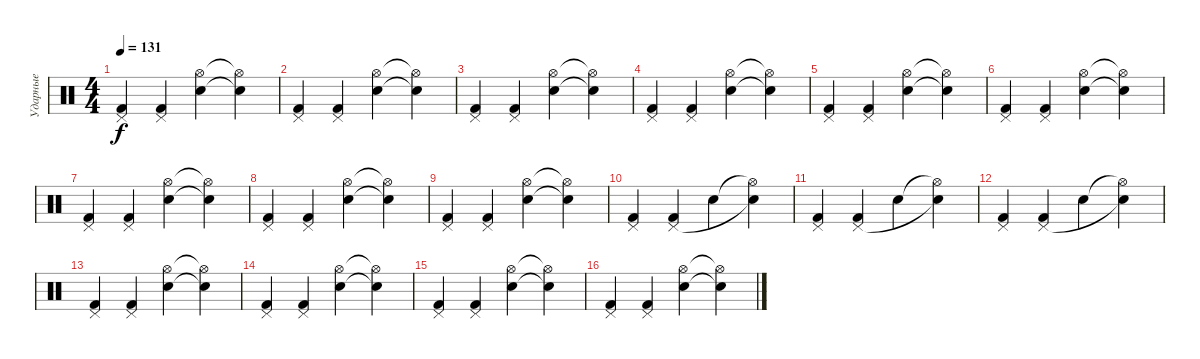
\track ("Ударные" "Ударные") {instrument percussion}
\staff {score}
\articulation defaults
\ts (4 4)
\tempo 131
\clef neutral
\ks c
("Kick (hit) 2" "Pedal Hi-Hat (hit)").4{dy f} ("Kick (hit) 2" "Pedal Hi-Hat (hit)").4 ("Hi-Hat (open)" "Snare (hit) 2").4 ("Hi-Hat (open)"{t} "Snare (hit) 2"{t}).4 |
("Kick (hit) 2" "Pedal Hi-Hat (hit)").4 ("Kick (hit) 2" "Pedal Hi-Hat (hit)").4 ("Hi-Hat (open)" "Snare (hit) 2").4 ("Hi-Hat (open)"{t} "Snare (hit) 2"{t}).4 |
("Kick (hit) 2" "Pedal Hi-Hat (hit)").4 ("Kick (hit) 2" "Pedal Hi-Hat (hit)").4 ("Hi-Hat (open)" "Snare (hit) 2").4 ("Hi-Hat (open)"{t} "Snare (hit) 2"{t}).4 |
("Kick (hit) 2" "Pedal Hi-Hat (hit)").4 ("Kick (hit) 2" "Pedal Hi-Hat (hit)").4 ("Hi-Hat (open)" "Snare (hit) 2").4 ("Hi-Hat (open)"{t} "Snare (hit) 2"{t}).4 |
("Kick (hit) 2" "Pedal Hi-Hat (hit)").4 ("Kick (hit) 2" "Pedal Hi-Hat (hit)").4 ("Hi-Hat (open)" "Snare (hit) 2").4 ("Hi-Hat (open)"{t} "Snare (hit) 2"{t}).4 |
("Kick (hit) 2" "Pedal Hi-Hat (hit)").4 ("Kick (hit) 2" "Pedal Hi-Hat (hit)").4 ("Hi-Hat (open)" "Snare (hit) 2").4 ("Hi-Hat (open)"{t} "Snare (hit) 2"{t}).4 |
("Kick (hit) 2" "Pedal Hi-Hat (hit)").4 ("Kick (hit) 2" "Pedal Hi-Hat (hit)").4 ("Hi-Hat (open)" "Snare (hit) 2").4 ("Hi-Hat (open)"{t} "Snare (hit) 2"{t}).4 |
("Kick (hit) 2" "Pedal Hi-Hat (hit)").4 ("Kick (hit) 2" "Pedal Hi-Hat (hit)").4 ("Hi-Hat (open)" "Snare (hit) 2").4 ("Hi-Hat (open)"{t} "Snare (hit) 2"{t}).4 |
("Kick (hit) 2" "Pedal Hi-Hat (hit)").4 ("Kick (hit) 2" "Pedal Hi-Hat (hit)").4 ("Hi-Hat (open)" "Snare (hit) 2").4 ("Hi-Hat (open)"{t} "Snare (hit) 2"{t}).4 |
("Kick (hit) 2" "Pedal Hi-Hat (hit)").4 ("Kick (hit) 2" "Pedal Hi-Hat (hit)").4 "Snare (hit) 2".4 ("Hi-Hat (open)"{t} "Snare (hit) 2"{t}).4 |
("Kick (hit) 2" "Pedal Hi-Hat (hit)").4 ("Kick (hit) 2" "Pedal Hi-Hat (hit)").4 "Snare (hit) 2".4 ("Hi-Hat (open)"{t} "Snare (hit) 2"{t}).4 |
("Kick (hit) 2" "Pedal Hi-Hat (hit)").4 ("Kick (hit) 2" "Pedal Hi-Hat (hit)").4 "Snare (hit) 2".4 ("Hi-Hat (open)"{t} "Snare (hit) 2"{t}).4 |
("Kick (hit) 2" "Pedal Hi-Hat (hit)").4 ("Kick (hit) 2" "Pedal Hi-Hat (hit)").4 ("Hi-Hat (open)" "Snare (hit) 2").4 ("Hi-Hat (open)"{t} "Snare (hit) 2"{t}).4 |
("Kick (hit) 2" "Pedal Hi-Hat (hit)").4 ("Kick (hit) 2" "Pedal Hi-Hat (hit)").4 ("Hi-Hat (open)" "Snare (hit) 2").4 ("Hi-Hat (open)"{t} "Snare (hit) 2"{t}).4 |
("Kick (hit) 2" "Pedal Hi-Hat (hit)").4 ("Kick (hit) 2" "Pedal Hi-Hat (hit)").4 ("Hi-Hat (open)" "Snare (hit) 2").4 ("Hi-Hat (open)"{t} "Snare (hit) 2"{t}).4 |
("Kick (hit) 2" "Pedal Hi-Hat (hit)").4 ("Kick (hit) 2" "Pedal Hi-Hat (hit)").4 ("Hi-Hat (open)" "Snare (hit) 2").4 ("Hi-Hat (open)"{t} "Snare (hit) 2"{t}).4
